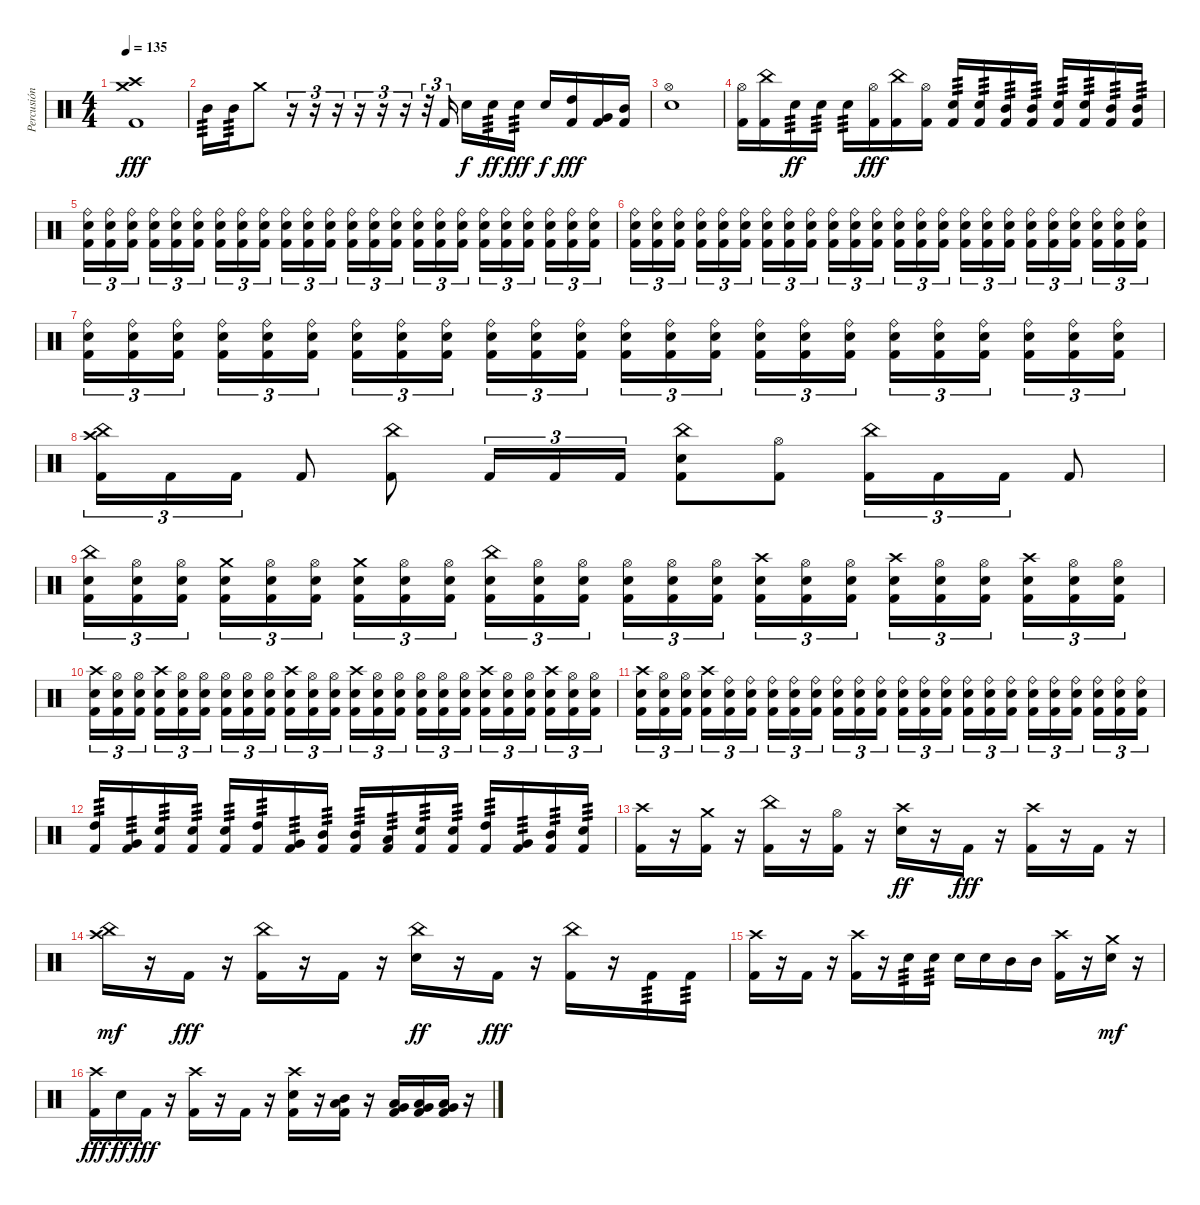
\track ("Percusión" "Percusión") {instrument percussion}
\staff {score}
\articulation defaults
\ts (4 4)
\tempo 135
\clef neutral
\ks c
("Crash medium (hit)" "Crash high (hit)" "Kick (hit) 2").1{dy fff} |
"Mid Tom (hit)".16{tp 3} "Mid Tom (hit)".16{tp 3} "Crash medium (hit)".8 r.16{tu (3 2)} r.16{tu (3 2)} r.16{tu (3 2)} r.16{tu (3 2)} r.16{tu (3 2)} r.16{tu (3 2)} r.32{tu (3 2)} "Kick (hit) 2".16{tu (3 2) beam splitsecondary} "Snare (hit) 2".16{dy f} "Snare (hit) 2".16{tp 3 dy ff} "Snare (hit) 2".16{tp 3 dy fff} "Snare (hit) 2".16{dy f} ("High Tom (hit)" "Kick (hit) 2").16{dy fff} ("Very Low Tom (hit)" "Kick (hit) 2").16 ("Mid Tom (hit)" "Kick (hit) 2").16 |
("Snare (hit) 2" "Hi-Hat (open)").1 |
("Hi-Hat (open)" "Kick (hit) 2").16 ("China (hit)" "Kick (hit) 2").16 "Snare (hit) 2".16{tp 3 dy ff} "Snare (hit) 2".16{tp 3} "Snare (hit) 2".16{tp 3} ("Hi-Hat (open)" "Kick (hit) 2").16{dy fff} ("China (hit)" "Kick (hit) 2").16 ("Hi-Hat (open)" "Kick (hit) 2").16 ("Snare (hit) 2" "Kick (hit) 2").16{tp 3} ("Snare (hit) 2" "Kick (hit) 2").16{tp 3} ("Mid Tom (hit)" "Kick (hit) 2").16{tp 3} ("Mid Tom (hit)" "Kick (hit) 2").16{tp 3} ("Snare (hit) 2" "Kick (hit) 2").16{tp 3} ("Snare (hit) 2" "Kick (hit) 2").16{tp 3} ("Mid Tom (hit)" "Kick (hit) 2").16{tp 3} ("Mid Tom (hit)" "Kick (hit) 2").16{tp 3} |
("Ride (bell)" "Snare (hit) 2" "Kick (hit) 2").16{tu (3 2) volume 10} ("Ride (bell)" "Snare (hit) 2" "Kick (hit) 2").16{tu (3 2)} ("Ride (bell)" "Snare (hit) 2" "Kick (hit) 2").16{tu (3 2) beam splitsecondary} ("Ride (bell)" "Snare (hit) 2" "Kick (hit) 2").16{tu (3 2)} ("Ride (bell)" "Snare (hit) 2" "Kick (hit) 2").16{tu (3 2)} ("Ride (bell)" "Snare (hit) 2" "Kick (hit) 2").16{tu (3 2)} ("Ride (bell)" "Snare (hit) 2" "Kick (hit) 2").16{tu (3 2)} ("Ride (bell)" "Snare (hit) 2" "Kick (hit) 2").16{tu (3 2)} ("Ride (bell)" "Snare (hit) 2" "Kick (hit) 2").16{tu (3 2) beam splitsecondary} ("Ride (bell)" "Snare (hit) 2" "Kick (hit) 2").16{tu (3 2)} ("Ride (bell)" "Snare (hit) 2" "Kick (hit) 2").16{tu (3 2)} ("Ride (bell)" "Snare (hit) 2" "Kick (hit) 2").16{tu (3 2)} ("Ride (bell)" "Snare (hit) 2" "Kick (hit) 2").16{tu (3 2)} ("Ride (bell)" "Snare (hit) 2" "Kick (hit) 2").16{tu (3 2)} ("Ride (bell)" "Snare (hit) 2" "Kick (hit) 2").16{tu (3 2) beam splitsecondary} ("Ride (bell)" "Snare (hit) 2" "Kick (hit) 2").16{tu (3 2)} ("Ride (bell)" "Snare (hit) 2" "Kick (hit) 2").16{tu (3 2)} ("Ride (bell)" "Snare (hit) 2" "Kick (hit) 2").16{tu (3 2)} ("Ride (bell)" "Snare (hit) 2" "Kick (hit) 2").16{tu (3 2)} ("Ride (bell)" "Snare (hit) 2" "Kick (hit) 2").16{tu (3 2)} ("Ride (bell)" "Snare (hit) 2" "Kick (hit) 2").16{tu (3 2) beam splitsecondary} ("Ride (bell)" "Snare (hit) 2" "Kick (hit) 2").16{tu (3 2)} ("Ride (bell)" "Snare (hit) 2" "Kick (hit) 2").16{tu (3 2)} ("Ride (bell)" "Snare (hit) 2" "Kick (hit) 2").16{tu (3 2)} |
("Ride (bell)" "Snare (hit) 2" "Kick (hit) 2").16{tu (3 2) volume 10} ("Ride (bell)" "Snare (hit) 2" "Kick (hit) 2").16{tu (3 2)} ("Ride (bell)" "Snare (hit) 2" "Kick (hit) 2").16{tu (3 2) beam splitsecondary} ("Ride (bell)" "Snare (hit) 2" "Kick (hit) 2").16{tu (3 2)} ("Ride (bell)" "Snare (hit) 2" "Kick (hit) 2").16{tu (3 2)} ("Ride (bell)" "Snare (hit) 2" "Kick (hit) 2").16{tu (3 2)} ("Ride (bell)" "Snare (hit) 2" "Kick (hit) 2").16{tu (3 2)} ("Ride (bell)" "Snare (hit) 2" "Kick (hit) 2").16{tu (3 2)} ("Ride (bell)" "Snare (hit) 2" "Kick (hit) 2").16{tu (3 2) beam splitsecondary} ("Ride (bell)" "Snare (hit) 2" "Kick (hit) 2").16{tu (3 2)} ("Ride (bell)" "Snare (hit) 2" "Kick (hit) 2").16{tu (3 2)} ("Ride (bell)" "Snare (hit) 2" "Kick (hit) 2").16{tu (3 2)} ("Ride (bell)" "Snare (hit) 2" "Kick (hit) 2").16{tu (3 2)} ("Ride (bell)" "Snare (hit) 2" "Kick (hit) 2").16{tu (3 2)} ("Ride (bell)" "Snare (hit) 2" "Kick (hit) 2").16{tu (3 2) beam splitsecondary} ("Ride (bell)" "Snare (hit) 2" "Kick (hit) 2").16{tu (3 2)} ("Ride (bell)" "Snare (hit) 2" "Kick (hit) 2").16{tu (3 2)} ("Ride (bell)" "Snare (hit) 2" "Kick (hit) 2").16{tu (3 2)} ("Ride (bell)" "Snare (hit) 2" "Kick (hit) 2").16{tu (3 2)} ("Ride (bell)" "Snare (hit) 2" "Kick (hit) 2").16{tu (3 2)} ("Ride (bell)" "Snare (hit) 2" "Kick (hit) 2").16{tu (3 2) beam splitsecondary} ("Ride (bell)" "Snare (hit) 2" "Kick (hit) 2").16{tu (3 2)} ("Ride (bell)" "Snare (hit) 2" "Kick (hit) 2").16{tu (3 2)} ("Ride (bell)" "Snare (hit) 2" "Kick (hit) 2").16{tu (3 2)} |
("Ride (bell)" "Snare (hit) 2" "Kick (hit) 2").16{tu (3 2) volume 10} ("Ride (bell)" "Snare (hit) 2" "Kick (hit) 2").16{tu (3 2)} ("Ride (bell)" "Snare (hit) 2" "Kick (hit) 2").16{tu (3 2) beam splitsecondary} ("Ride (bell)" "Snare (hit) 2" "Kick (hit) 2").16{tu (3 2)} ("Ride (bell)" "Snare (hit) 2" "Kick (hit) 2").16{tu (3 2)} ("Ride (bell)" "Snare (hit) 2" "Kick (hit) 2").16{tu (3 2)} ("Ride (bell)" "Snare (hit) 2" "Kick (hit) 2").16{tu (3 2)} ("Ride (bell)" "Snare (hit) 2" "Kick (hit) 2").16{tu (3 2)} ("Ride (bell)" "Snare (hit) 2" "Kick (hit) 2").16{tu (3 2) beam splitsecondary} ("Ride (bell)" "Snare (hit) 2" "Kick (hit) 2").16{tu (3 2)} ("Ride (bell)" "Snare (hit) 2" "Kick (hit) 2").16{tu (3 2)} ("Ride (bell)" "Snare (hit) 2" "Kick (hit) 2").16{tu (3 2)} ("Ride (bell)" "Snare (hit) 2" "Kick (hit) 2").16{tu (3 2)} ("Ride (bell)" "Snare (hit) 2" "Kick (hit) 2").16{tu (3 2)} ("Ride (bell)" "Snare (hit) 2" "Kick (hit) 2").16{tu (3 2) beam splitsecondary} ("Ride (bell)" "Snare (hit) 2" "Kick (hit) 2").16{tu (3 2)} ("Ride (bell)" "Snare (hit) 2" "Kick (hit) 2").16{tu (3 2)} ("Ride (bell)" "Snare (hit) 2" "Kick (hit) 2").16{tu (3 2)} ("Ride (bell)" "Snare (hit) 2" "Kick (hit) 2").16{tu (3 2)} ("Ride (bell)" "Snare (hit) 2" "Kick (hit) 2").16{tu (3 2)} ("Ride (bell)" "Snare (hit) 2" "Kick (hit) 2").16{tu (3 2) beam splitsecondary} ("Ride (bell)" "Snare (hit) 2" "Kick (hit) 2").16{tu (3 2)} ("Ride (bell)" "Snare (hit) 2" "Kick (hit) 2").16{tu (3 2)} ("Ride (bell)" "Snare (hit) 2" "Kick (hit) 2").16{tu (3 2)} |
("Crash high (hit)" "China (hit)" "Kick (hit) 2").16{tu (3 2) volume 14} "Kick (hit) 2".16{tu (3 2)} "Kick (hit) 2".16{tu (3 2)} "Kick (hit) 2".8 ("China (hit)" "Kick (hit) 2").8 "Kick (hit) 2".16{tu (3 2)} "Kick (hit) 2".16{tu (3 2)} "Kick (hit) 2".16{tu (3 2)} ("China (hit)" "Snare (hit) 2" "Kick (hit) 2").8 ("Hi-Hat (open)" "Kick (hit) 2").8 ("China (hit)" "Kick (hit) 2").16{tu (3 2)} "Kick (hit) 2".16{tu (3 2)} "Kick (hit) 2".16{tu (3 2)} "Kick (hit) 2".8 |
("China (hit)" "Snare (hit) 2" "Kick (hit) 2").16{tu (3 2) volume 10} ("Hi-Hat (open)" "Snare (hit) 2" "Kick (hit) 2").16{tu (3 2)} ("Hi-Hat (open)" "Snare (hit) 2" "Kick (hit) 2").16{tu (3 2) beam splitsecondary} ("Crash medium (hit)" "Snare (hit) 2" "Kick (hit) 2").16{tu (3 2)} ("Hi-Hat (open)" "Snare (hit) 2" "Kick (hit) 2").16{tu (3 2)} ("Hi-Hat (open)" "Snare (hit) 2" "Kick (hit) 2").16{tu (3 2)} ("Crash medium (hit)" "Snare (hit) 2" "Kick (hit) 2").16{tu (3 2)} ("Hi-Hat (open)" "Snare (hit) 2" "Kick (hit) 2").16{tu (3 2)} ("Hi-Hat (open)" "Snare (hit) 2" "Kick (hit) 2").16{tu (3 2) beam splitsecondary} ("China (hit)" "Snare (hit) 2" "Kick (hit) 2").16{tu (3 2)} ("Hi-Hat (open)" "Snare (hit) 2" "Kick (hit) 2").16{tu (3 2)} ("Hi-Hat (open)" "Snare (hit) 2" "Kick (hit) 2").16{tu (3 2)} ("Hi-Hat (open)" "Snare (hit) 2" "Kick (hit) 2").16{tu (3 2)} ("Hi-Hat (open)" "Snare (hit) 2" "Kick (hit) 2").16{tu (3 2)} ("Hi-Hat (open)" "Snare (hit) 2" "Kick (hit) 2").16{tu (3 2) beam splitsecondary} ("Crash high (hit)" "Snare (hit) 2" "Kick (hit) 2").16{tu (3 2)} ("Hi-Hat (open)" "Snare (hit) 2" "Kick (hit) 2").16{tu (3 2)} ("Hi-Hat (open)" "Snare (hit) 2" "Kick (hit) 2").16{tu (3 2)} ("Crash high (hit)" "Snare (hit) 2" "Kick (hit) 2").16{tu (3 2)} ("Hi-Hat (open)" "Snare (hit) 2" "Kick (hit) 2").16{tu (3 2)} ("Hi-Hat (open)" "Snare (hit) 2" "Kick (hit) 2").16{tu (3 2) beam splitsecondary} ("Crash high (hit)" "Snare (hit) 2" "Kick (hit) 2").16{tu (3 2)} ("Hi-Hat (open)" "Snare (hit) 2" "Kick (hit) 2").16{tu (3 2)} ("Hi-Hat (open)" "Snare (hit) 2" "Kick (hit) 2").16{tu (3 2)} |
("Crash high (hit)" "Snare (hit) 2" "Kick (hit) 2").16{tu (3 2) volume 10} ("Hi-Hat (open)" "Snare (hit) 2" "Kick (hit) 2").16{tu (3 2)} ("Hi-Hat (open)" "Snare (hit) 2" "Kick (hit) 2").16{tu (3 2) beam splitsecondary} ("Crash high (hit)" "Snare (hit) 2" "Kick (hit) 2").16{tu (3 2)} ("Hi-Hat (open)" "Snare (hit) 2" "Kick (hit) 2").16{tu (3 2)} ("Hi-Hat (open)" "Snare (hit) 2" "Kick (hit) 2").16{tu (3 2)} ("Hi-Hat (open)" "Snare (hit) 2" "Kick (hit) 2").16{tu (3 2)} ("Hi-Hat (open)" "Snare (hit) 2" "Kick (hit) 2").16{tu (3 2)} ("Hi-Hat (open)" "Snare (hit) 2" "Kick (hit) 2").16{tu (3 2) beam splitsecondary} ("Crash high (hit)" "Snare (hit) 2" "Kick (hit) 2").16{tu (3 2)} ("Hi-Hat (open)" "Snare (hit) 2" "Kick (hit) 2").16{tu (3 2)} ("Hi-Hat (open)" "Snare (hit) 2" "Kick (hit) 2").16{tu (3 2)} ("Crash high (hit)" "Snare (hit) 2" "Kick (hit) 2").16{tu (3 2)} ("Hi-Hat (open)" "Snare (hit) 2" "Kick (hit) 2").16{tu (3 2)} ("Hi-Hat (open)" "Snare (hit) 2" "Kick (hit) 2").16{tu (3 2) beam splitsecondary} ("Hi-Hat (open)" "Snare (hit) 2" "Kick (hit) 2").16{tu (3 2)} ("Hi-Hat (open)" "Snare (hit) 2" "Kick (hit) 2").16{tu (3 2)} ("Hi-Hat (open)" "Snare (hit) 2" "Kick (hit) 2").16{tu (3 2)} ("Crash high (hit)" "Snare (hit) 2" "Kick (hit) 2").16{tu (3 2)} ("Hi-Hat (open)" "Snare (hit) 2" "Kick (hit) 2").16{tu (3 2)} ("Hi-Hat (open)" "Snare (hit) 2" "Kick (hit) 2").16{tu (3 2) beam splitsecondary} ("Crash high (hit)" "Snare (hit) 2" "Kick (hit) 2").16{tu (3 2)} ("Hi-Hat (open)" "Snare (hit) 2" "Kick (hit) 2").16{tu (3 2)} ("Hi-Hat (open)" "Snare (hit) 2" "Kick (hit) 2").16{tu (3 2)} |
("Crash high (hit)" "Snare (hit) 2" "Kick (hit) 2").16{tu (3 2) volume 10} ("Hi-Hat (open)" "Snare (hit) 2" "Kick (hit) 2").16{tu (3 2)} ("Hi-Hat (open)" "Snare (hit) 2" "Kick (hit) 2").16{tu (3 2) beam splitsecondary} ("Crash high (hit)" "Snare (hit) 2" "Kick (hit) 2").16{tu (3 2)} ("Ride (bell)" "Snare (hit) 2" "Kick (hit) 2").16{tu (3 2)} ("Ride (bell)" "Snare (hit) 2" "Kick (hit) 2").16{tu (3 2)} ("Ride (bell)" "Snare (hit) 2" "Kick (hit) 2").16{tu (3 2)} ("Ride (bell)" "Snare (hit) 2" "Kick (hit) 2").16{tu (3 2)} ("Ride (bell)" "Snare (hit) 2" "Kick (hit) 2").16{tu (3 2) beam splitsecondary} ("Ride (bell)" "Snare (hit) 2" "Kick (hit) 2").16{tu (3 2)} ("Ride (bell)" "Snare (hit) 2" "Kick (hit) 2").16{tu (3 2)} ("Ride (bell)" "Snare (hit) 2" "Kick (hit) 2").16{tu (3 2)} ("Ride (bell)" "Snare (hit) 2" "Kick (hit) 2").16{tu (3 2)} ("Ride (bell)" "Snare (hit) 2" "Kick (hit) 2").16{tu (3 2)} ("Ride (bell)" "Snare (hit) 2" "Kick (hit) 2").16{tu (3 2) beam splitsecondary} ("Ride (bell)" "Snare (hit) 2" "Kick (hit) 2").16{tu (3 2)} ("Ride (bell)" "Snare (hit) 2" "Kick (hit) 2").16{tu (3 2)} ("Ride (bell)" "Snare (hit) 2" "Kick (hit) 2").16{tu (3 2)} ("Ride (bell)" "Snare (hit) 2" "Kick (hit) 2").16{tu (3 2)} ("Ride (bell)" "Snare (hit) 2" "Kick (hit) 2").16{tu (3 2)} ("Ride (bell)" "Snare (hit) 2" "Kick (hit) 2").16{tu (3 2) beam splitsecondary} ("Ride (bell)" "Snare (hit) 2" "Kick (hit) 2").16{tu (3 2)} ("Ride (bell)" "Snare (hit) 2" "Kick (hit) 2").16{tu (3 2)} ("Ride (bell)" "Snare (hit) 2" "Kick (hit) 2").16{tu (3 2)} |
("High Tom (hit)" "Kick (hit) 2").16{tp 3 volume 14} ("Very Low Tom (hit)" "Kick (hit) 2").16{tp 3} ("Snare (hit) 2" "Kick (hit) 2").16{tp 3} ("Snare (hit) 2" "Kick (hit) 2").16{tp 3} ("Snare (hit) 2" "Kick (hit) 2").16{tp 3} ("High Tom (hit)" "Kick (hit) 2").16{tp 3} ("Very Low Tom (hit)" "Kick (hit) 2").16{tp 3} ("Mid Tom (hit)" "Kick (hit) 2").16{tp 3} ("Mid Tom (hit)" "Kick (hit) 2").16{tp 3} ("Low Tom (hit)" "Kick (hit) 2").16{tp 3} ("Snare (hit) 2" "Kick (hit) 2").16{tp 3} ("Snare (hit) 2" "Kick (hit) 2").16{tp 3} ("High Tom (hit)" "Kick (hit) 2").16{tp 3} ("Very Low Tom (hit)" "Kick (hit) 2").16{tp 3} ("Mid Tom (hit)" "Kick (hit) 2").16{tp 3} ("Snare (hit) 2" "Kick (hit) 2").16{tp 3} |
("Crash high (hit)" "Kick (hit) 2").16 r.16 ("Crash medium (hit)" "Kick (hit) 2").16 r.16 ("China (hit)" "Kick (hit) 2").16 r.16 ("Hi-Hat (open)" "Kick (hit) 2").16 r.16 ("Crash high (hit)" "Snare (hit) 2").16{dy ff} r.16 "Kick (hit) 2".16{dy fff} r.16 ("Crash high (hit)" "Kick (hit) 2").16 r.16 "Kick (hit) 2".16 r.16 |
("China (hit)" "Crash high (hit)").16{dy mf} r.16 "Kick (hit) 2".16{dy fff} r.16 ("China (hit)" "Kick (hit) 2").16 r.16 "Kick (hit) 2".16 r.16 ("China (hit)" "Snare (hit) 2").16{dy ff} r.16 "Kick (hit) 2".16{dy fff} r.16 ("China (hit)" "Kick (hit) 2").16 r.16 "Kick (hit) 2".16{tp 3} "Kick (hit) 2".16{tp 3} |
("Crash high (hit)" "Kick (hit) 2").16 r.16 "Kick (hit) 2".16 r.16 ("Crash high (hit)" "Kick (hit) 2").16 r.16 "Snare (hit) 2".16{tp 3} "Snare (hit) 2".16{tp 3} "Snare (hit) 2".16 "Snare (hit) 2".16 "Mid Tom (hit)".16 "Mid Tom (hit)".16 ("Crash high (hit)" "Kick (hit) 2").16 r.16 ("Crash medium (hit)" "Snare (hit) 2").16{dy mf} r.16 |
("Crash high (hit)" "Kick (hit) 2").16{dy fff} "Snare (hit) 2".16{dy ff} "Kick (hit) 2".16{dy fff} r.16 ("Crash high (hit)" "Kick (hit) 2").16 r.16 "Kick (hit) 2".16 r.16 ("Crash high (hit)" "Snare (hit) 2" "Kick (hit) 2").16 r.16 ("Low Floor Tom (hit)" "Mid Tom (hit)" "Kick (hit) 2").16 r.16 ("Low Floor Tom (hit)" "Very Low Tom (hit)" "Kick (hit) 2").16 ("Low Floor Tom (hit)" "Very Low Tom (hit)" "Kick (hit) 2").16 ("Low Floor Tom (hit)" "Very Low Tom (hit)" "Kick (hit) 2").16 r.16
